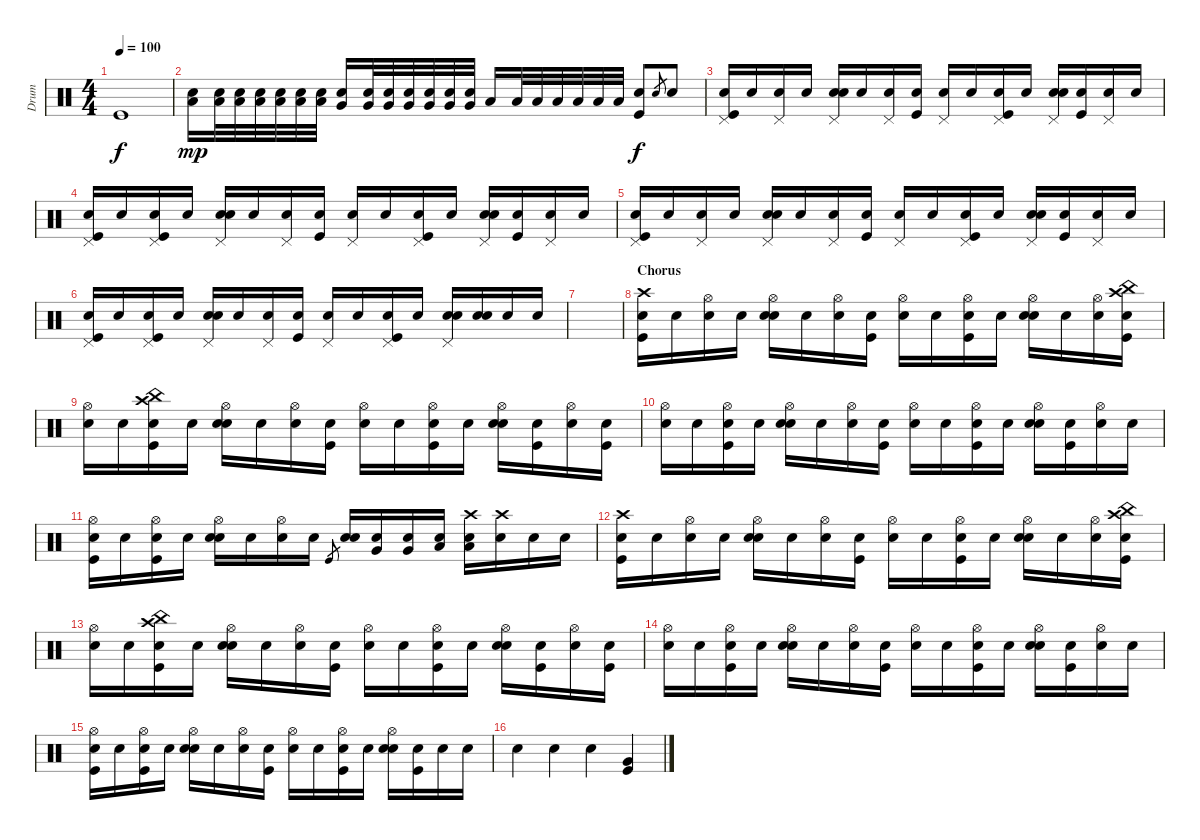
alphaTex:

\track ("Drum" "Drum") {instrument percussion}
\staff {score}
\articulation defaults
\ts (4 4)
\tempo 100
\clef neutral
\ks c "Kick (hit)".1{dy f}
|
("Low Tom (hit)" "Snare (hit)"{x}).16{dy mp} ("Low Tom (hit)" "Snare (hit)"{x}).32 ("Low Tom (hit)" "Snare (hit)"{x}).32 ("Low Tom (hit)" "Snare (hit)"{x}).32 ("Low Tom (hit)" "Snare (hit)"{x}).32 ("Low Tom (hit)" "Snare (hit)"{x}).32 ("Low Tom (hit)" "Snare (hit)"{x}).32 ("Very Low Tom (hit)" "Snare (hit)"{x}).16 ("Very Low Tom (hit)" "Snare (hit)"{x}).32 ("Very Low Tom (hit)" "Snare (hit)"{x}).32 ("Very Low Tom (hit)" "Snare (hit)"{x}).32 ("Very Low Tom (hit)" "Snare (hit)"{x}).32 ("Very Low Tom (hit)" "Snare (hit)"{x}).32 ("Very Low Tom (hit)" "Snare (hit)"{x}).32 "Low Floor Tom (hit)".16 "Low Floor Tom (hit)".32 "Low Floor Tom (hit)".32 "Low Floor Tom (hit)".32 "Low Floor Tom (hit)".32 "Low Floor Tom (hit)".32 "Low Floor Tom (hit)".32 ("Kick (hit)" "Snare (hit)"{x}).8{dy f} "Snare (hit) 2".8{gr} "Snare (hit) 2".8 |
("Kick (hit)" "Pedal Hi-Hat (hit)" "Snare (hit)"{x}).16 "Snare (hit)"{x}.16 ("Pedal Hi-Hat (hit)" "Snare (hit)"{x}).16 "Snare (hit)"{x}.16 ("Snare (hit) 2" "Pedal Hi-Hat (hit)" "Snare (hit)"{x}).16 "Snare (hit)"{x}.16 ("Pedal Hi-Hat (hit)" "Snare (hit)"{x}).16 ("Kick (hit)" "Snare (hit)"{x}).16 ("Pedal Hi-Hat (hit)" "Snare (hit)"{x}).16 "Snare (hit)"{x}.16 ("Kick (hit)" "Pedal Hi-Hat (hit)" "Snare (hit)"{x}).16 "Snare (hit)"{x}.16 ("Snare (hit) 2" "Pedal Hi-Hat (hit)" "Snare (hit)"{x}).16 ("Kick (hit)" "Snare (hit)"{x}).16 ("Pedal Hi-Hat (hit)" "Snare (hit)"{x}).16 "Snare (hit)"{x}.16 |
("Kick (hit)" "Pedal Hi-Hat (hit)" "Snare (hit)"{x}).16 "Snare (hit)"{x}.16 ("Kick (hit)" "Pedal Hi-Hat (hit)" "Snare (hit)"{x}).16 "Snare (hit)"{x}.16 ("Snare (hit) 2" "Pedal Hi-Hat (hit)" "Snare (hit)"{x}).16 "Snare (hit)"{x}.16 ("Pedal Hi-Hat (hit)" "Snare (hit)"{x}).16 ("Kick (hit)" "Snare (hit)"{x}).16 ("Pedal Hi-Hat (hit)" "Snare (hit)"{x}).16 "Snare (hit)"{x}.16 ("Kick (hit)" "Pedal Hi-Hat (hit)" "Snare (hit)"{x}).16 "Snare (hit)"{x}.16 ("Snare (hit) 2" "Pedal Hi-Hat (hit)" "Snare (hit)"{x}).16 ("Kick (hit)" "Snare (hit)"{x}).16 ("Pedal Hi-Hat (hit)" "Snare (hit)"{x}).16 "Snare (hit)"{x}.16 |
("Kick (hit)" "Pedal Hi-Hat (hit)" "Snare (hit)"{x}).16 "Snare (hit)"{x}.16 ("Pedal Hi-Hat (hit)" "Snare (hit)"{x}).16 "Snare (hit)"{x}.16 ("Snare (hit) 2" "Pedal Hi-Hat (hit)" "Snare (hit)"{x}).16 "Snare (hit)"{x}.16 ("Pedal Hi-Hat (hit)" "Snare (hit)"{x}).16 ("Kick (hit)" "Snare (hit)"{x}).16 ("Pedal Hi-Hat (hit)" "Snare (hit)"{x}).16 "Snare (hit)"{x}.16 ("Kick (hit)" "Pedal Hi-Hat (hit)" "Snare (hit)"{x}).16 "Snare (hit)"{x}.16 ("Snare (hit) 2" "Pedal Hi-Hat (hit)" "Snare (hit)"{x}).16 ("Kick (hit)" "Snare (hit)"{x}).16 ("Pedal Hi-Hat (hit)" "Snare (hit)"{x}).16 "Snare (hit)"{x}.16 |
("Kick (hit)" "Pedal Hi-Hat (hit)" "Snare (hit)"{x}).16 "Snare (hit)"{x}.16 ("Kick (hit)" "Pedal Hi-Hat (hit)" "Snare (hit)"{x}).16 "Snare (hit)"{x}.16 ("Snare (hit) 2" "Pedal Hi-Hat (hit)" "Snare (hit)"{x}).16 "Snare (hit)"{x}.16 ("Pedal Hi-Hat (hit)" "Snare (hit)"{x}).16 ("Kick (hit)" "Snare (hit)"{x}).16 ("Pedal Hi-Hat (hit)" "Snare (hit)"{x}).16 "Snare (hit)"{x}.16 ("Kick (hit)" "Pedal Hi-Hat (hit)" "Snare (hit)"{x}).16 "Snare (hit)"{x}.16 ("Snare (hit) 2" "Pedal Hi-Hat (hit)" "Snare (hit)"{x}).16 ("Snare (hit) 2" "Snare (hit)"{x}).16 "Snare (hit)"{x}.16 "Snare (hit)"{x}.16 |
|
\section ("" "Chorus")
("Kick (hit)" "Crash high (hit)" "Snare (hit)"{x}).16 "Snare (hit)"{x}.16 ("Hi-Hat (open)" "Snare (hit)"{x}).16 "Snare (hit)"{x}.16 ("Snare (hit) 2" "Hi-Hat (open)" "Snare (hit)"{x}).16 "Snare (hit)"{x}.16 ("Hi-Hat (open)" "Snare (hit)"{x}).16 ("Kick (hit)" "Snare (hit)"{x}).16 ("Hi-Hat (open)" "Snare (hit)"{x}).16 "Snare (hit)"{x}.16 ("Kick (hit)" "Hi-Hat (open)" "Snare (hit)"{x}).16 "Snare (hit)"{x}.16 ("Snare (hit) 2" "Hi-Hat (open)" "Snare (hit)"{x}).16 "Snare (hit)"{x}.16 ("Hi-Hat (open)" "Snare (hit)"{x}).16 ("Crash high (hit)" "Kick (hit)" "China (hit)" "Snare (hit)"{x}).16 |
("Hi-Hat (open)" "Snare (hit)"{x}).16 "Snare (hit)"{x}.16 ("Crash high (hit)" "Kick (hit)" "China (hit)" "Snare (hit)"{x}).16 "Snare (hit)"{x}.16 ("Snare (hit) 2" "Hi-Hat (open)" "Snare (hit)"{x}).16 "Snare (hit)"{x}.16 ("Hi-Hat (open)" "Snare (hit)"{x}).16 ("Kick (hit)" "Snare (hit)"{x}).16 ("Hi-Hat (open)" "Snare (hit)"{x}).16 "Snare (hit)"{x}.16 ("Kick (hit)" "Hi-Hat (open)" "Snare (hit)"{x}).16 "Snare (hit)"{x}.16 ("Snare (hit) 2" "Hi-Hat (open)" "Snare (hit)"{x}).16 ("Kick (hit)" "Snare (hit)"{x}).16 ("Hi-Hat (open)" "Snare (hit)"{x}).16 ("Kick (hit)" "Snare (hit)"{x}).16 |
("Hi-Hat (open)" "Snare (hit)"{x}).16 "Snare (hit)"{x}.16 ("Kick (hit)" "Hi-Hat (open)" "Snare (hit)"{x}).16 "Snare (hit)"{x}.16 ("Snare (hit) 2" "Hi-Hat (open)" "Snare (hit)"{x}).16 "Snare (hit)"{x}.16 ("Hi-Hat (open)" "Snare (hit)"{x}).16 ("Kick (hit)" "Snare (hit)"{x}).16 ("Hi-Hat (open)" "Snare (hit)"{x}).16 "Snare (hit)"{x}.16 ("Kick (hit)" "Hi-Hat (open)" "Snare (hit)"{x}).16 "Snare (hit)"{x}.16 ("Snare (hit) 2" "Hi-Hat (open)" "Snare (hit)"{x}).16 ("Kick (hit)" "Snare (hit)"{x}).16 ("Hi-Hat (open)" "Snare (hit)"{x}).16 "Snare (hit)"{x}.16 |
("Kick (hit)" "Hi-Hat (open)" "Snare (hit)"{x}).16 "Snare (hit)"{x}.16 ("Kick (hit)" "Hi-Hat (open)" "Snare (hit)"{x}).16 "Snare (hit)"{x}.16 ("Snare (hit) 2" "Hi-Hat (open)" "Snare (hit)"{x}).16 "Snare (hit)"{x}.16 ("Hi-Hat (open)" "Snare (hit)"{x}).16 "Snare (hit)"{x}.16 "Kick (hit)".8{gr} ("Snare (hit) 2" "Snare (hit)"{x}).16 ("Very Low Tom (hit)" "Snare (hit)"{x}).16 ("Very Low Tom (hit)" "Snare (hit)"{x}).16 ("Low Floor Tom (hit)" "Snare (hit)"{x}).16 ("Low Floor Tom (hit)" "Crash high (hit)" "Snare (hit)"{x}).16 ("Crash high (hit)" "Snare (hit)"{x}).16 "Snare (hit)"{x}.16 "Snare (hit)"{x}.16 |
("Kick (hit)" "Crash high (hit)" "Snare (hit)"{x}).16 "Snare (hit)"{x}.16 ("Hi-Hat (open)" "Snare (hit)"{x}).16 "Snare (hit)"{x}.16 ("Snare (hit) 2" "Hi-Hat (open)" "Snare (hit)"{x}).16 "Snare (hit)"{x}.16 ("Hi-Hat (open)" "Snare (hit)"{x}).16 ("Kick (hit)" "Snare (hit)"{x}).16 ("Hi-Hat (open)" "Snare (hit)"{x}).16 "Snare (hit)"{x}.16 ("Kick (hit)" "Hi-Hat (open)" "Snare (hit)"{x}).16 "Snare (hit)"{x}.16 ("Snare (hit) 2" "Hi-Hat (open)" "Snare (hit)"{x}).16 "Snare (hit)"{x}.16 ("Hi-Hat (open)" "Snare (hit)"{x}).16 ("Crash high (hit)" "Kick (hit)" "China (hit)" "Snare (hit)"{x}).16 |
("Hi-Hat (open)" "Snare (hit)"{x}).16 "Snare (hit)"{x}.16 ("Crash high (hit)" "Kick (hit)" "China (hit)" "Snare (hit)"{x}).16 "Snare (hit)"{x}.16 ("Snare (hit) 2" "Hi-Hat (open)" "Snare (hit)"{x}).16 "Snare (hit)"{x}.16 ("Hi-Hat (open)" "Snare (hit)"{x}).16 ("Kick (hit)" "Snare (hit)"{x}).16 ("Hi-Hat (open)" "Snare (hit)"{x}).16 "Snare (hit)"{x}.16 ("Kick (hit)" "Hi-Hat (open)" "Snare (hit)"{x}).16 "Snare (hit)"{x}.16 ("Snare (hit) 2" "Hi-Hat (open)" "Snare (hit)"{x}).16 ("Kick (hit)" "Snare (hit)"{x}).16 ("Hi-Hat (open)" "Snare (hit)"{x}).16 ("Kick (hit)" "Snare (hit)"{x}).16 |
("Hi-Hat (open)" "Snare (hit)"{x}).16 "Snare (hit)"{x}.16 ("Kick (hit)" "Hi-Hat (open)" "Snare (hit)"{x}).16 "Snare (hit)"{x}.16 ("Snare (hit) 2" "Hi-Hat (open)" "Snare (hit)"{x}).16 "Snare (hit)"{x}.16 ("Hi-Hat (open)" "Snare (hit)"{x}).16 ("Kick (hit)" "Snare (hit)"{x}).16 ("Hi-Hat (open)" "Snare (hit)"{x}).16 "Snare (hit)"{x}.16 ("Kick (hit)" "Hi-Hat (open)" "Snare (hit)"{x}).16 "Snare (hit)"{x}.16 ("Snare (hit) 2" "Hi-Hat (open)" "Snare (hit)"{x}).16 ("Kick (hit)" "Snare (hit)"{x}).16 ("Hi-Hat (open)" "Snare (hit)"{x}).16 "Snare (hit)"{x}.16 |
("Kick (hit)" "Hi-Hat (open)" "Snare (hit)"{x}).16 "Snare (hit)"{x}.16 ("Kick (hit)" "Hi-Hat (open)" "Snare (hit)"{x}).16 "Snare (hit)"{x}.16 ("Snare (hit) 2" "Hi-Hat (open)" "Snare (hit)"{x}).16 "Snare (hit)"{x}.16 ("Hi-Hat (open)" "Snare (hit)"{x}).16 ("Kick (hit)" "Snare (hit)"{x}).16 ("Hi-Hat (open)" "Snare (hit)"{x}).16 "Snare (hit)"{x}.16 ("Kick (hit)" "Hi-Hat (open)" "Snare (hit)"{x}).16 "Snare (hit)"{x}.16 ("Snare (hit) 2" "Hi-Hat (open)" "Snare (hit)"{x}).16 ("Kick (hit)" "Snare (hit)"{x}).16 "Snare (hit)"{x}.16 "Snare (hit)"{x}.16 |
"Snare (hit)"{x}.4 "Snare (hit)"{x}.4 "Snare (hit)"{x}.4 ("Very Low Tom (hit)" "Kick (hit)").4
